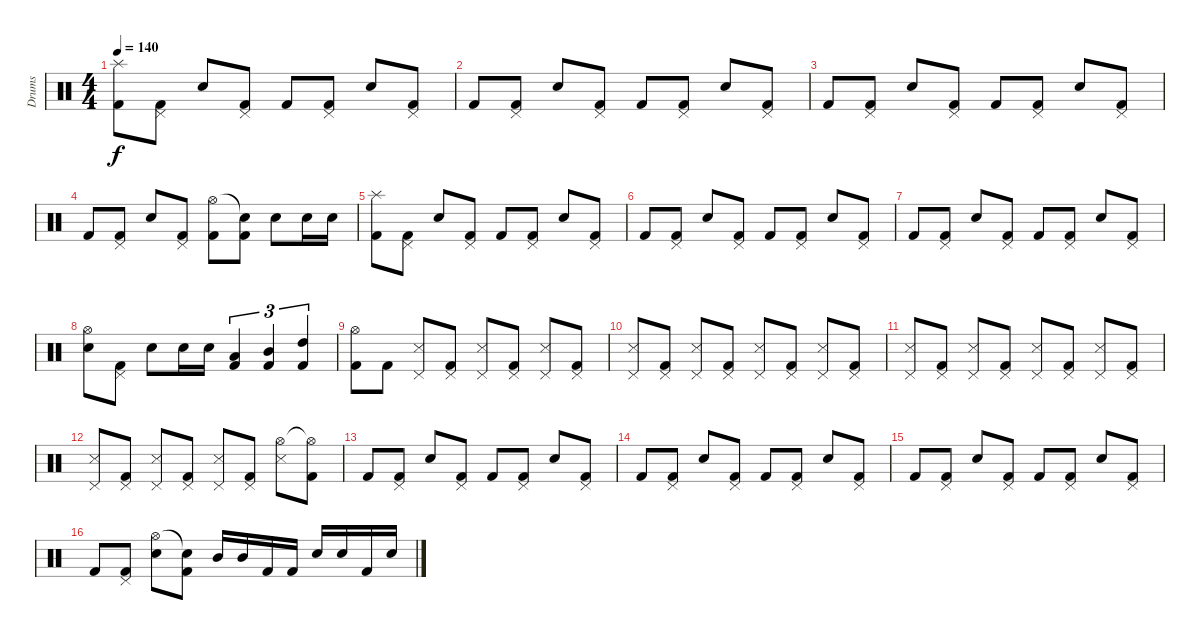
\track ("Drums" "Drums") {instrument percussion}
\staff {score}
\articulation defaults
\ts (4 4)
\tempo 140
\clef neutral
\ks c
("Splash (hit)" "Kick (hit) 2").8{dy f} ("Pedal Hi-Hat (hit)" "Kick (hit) 2").8 "Electric Snare (hit)".8 ("Pedal Hi-Hat (hit)" "Kick (hit) 2").8 "Kick (hit) 2".8 ("Pedal Hi-Hat (hit)" "Kick (hit) 2").8 "Electric Snare (hit)".8 ("Pedal Hi-Hat (hit)" "Kick (hit) 2").8 |
"Kick (hit) 2".8 ("Pedal Hi-Hat (hit)" "Kick (hit) 2").8 "Electric Snare (hit)".8 ("Pedal Hi-Hat (hit)" "Kick (hit) 2").8 "Kick (hit) 2".8 ("Pedal Hi-Hat (hit)" "Kick (hit) 2").8 "Electric Snare (hit)".8 ("Pedal Hi-Hat (hit)" "Kick (hit) 2").8 |
"Kick (hit) 2".8 ("Pedal Hi-Hat (hit)" "Kick (hit) 2").8 "Electric Snare (hit)".8 ("Pedal Hi-Hat (hit)" "Kick (hit) 2").8 "Kick (hit) 2".8 ("Pedal Hi-Hat (hit)" "Kick (hit) 2").8 "Electric Snare (hit)".8 ("Pedal Hi-Hat (hit)" "Kick (hit) 2").8 |
"Kick (hit) 2".8 ("Pedal Hi-Hat (hit)" "Kick (hit) 2").8 "Electric Snare (hit)".8 ("Pedal Hi-Hat (hit)" "Kick (hit) 2").8 ("Hi-Hat (open)" "Kick (hit) 2").8 ("Snare (hit)"{t} "Kick (hit) 2").8 "Electric Snare (hit)".8 "Electric Snare (hit)".16 "Electric Snare (hit)".16 |
("Splash (hit)" "Kick (hit) 2").8 ("Pedal Hi-Hat (hit)" "Kick (hit) 2").8 "Electric Snare (hit)".8 ("Pedal Hi-Hat (hit)" "Kick (hit) 2").8 "Kick (hit) 2".8 ("Pedal Hi-Hat (hit)" "Kick (hit) 2").8 "Electric Snare (hit)".8 ("Pedal Hi-Hat (hit)" "Kick (hit) 2").8 |
"Kick (hit) 2".8 ("Pedal Hi-Hat (hit)" "Kick (hit) 2").8 "Electric Snare (hit)".8 ("Pedal Hi-Hat (hit)" "Kick (hit) 2").8 "Kick (hit) 2".8 ("Pedal Hi-Hat (hit)" "Kick (hit) 2").8 "Electric Snare (hit)".8 ("Pedal Hi-Hat (hit)" "Kick (hit) 2").8 |
"Kick (hit) 2".8 ("Pedal Hi-Hat (hit)" "Kick (hit) 2").8 "Electric Snare (hit)".8 ("Pedal Hi-Hat (hit)" "Kick (hit) 2").8 "Kick (hit) 2".8 ("Pedal Hi-Hat (hit)" "Kick (hit) 2").8 "Electric Snare (hit)".8 ("Pedal Hi-Hat (hit)" "Kick (hit) 2").8 |
("Hi-Hat (open)" "Electric Snare (hit)").8 ("Pedal Hi-Hat (hit)" "Kick (hit) 2").8 "Electric Snare (hit)".8 "Electric Snare (hit)".16 "Electric Snare (hit)".16 ("Low Tom (hit)" "Kick (hit) 2").4{tu (3 2)} ("Mid Tom (hit)" "Kick (hit) 2").4{tu (3 2)} ("High Tom (hit)" "Kick (hit) 2").4{tu (3 2)} |
("Hi-Hat (open)" "Kick (hit) 2").8 "Kick (hit) 2".8 ("Pedal Hi-Hat (hit)" "Snare (side stick) 3").8 ("Pedal Hi-Hat (hit)" "Kick (hit) 2").8 ("Pedal Hi-Hat (hit)" "Snare (side stick) 3").8 ("Pedal Hi-Hat (hit)" "Kick (hit) 2").8 ("Pedal Hi-Hat (hit)" "Snare (side stick) 3").8 ("Pedal Hi-Hat (hit)" "Kick (hit) 2").8 |
("Pedal Hi-Hat (hit)" "Snare (side stick) 3").8 ("Pedal Hi-Hat (hit)" "Kick (hit) 2").8 ("Pedal Hi-Hat (hit)" "Snare (side stick) 3").8 ("Pedal Hi-Hat (hit)" "Kick (hit) 2").8 ("Pedal Hi-Hat (hit)" "Snare (side stick) 3").8 ("Pedal Hi-Hat (hit)" "Kick (hit) 2").8 ("Pedal Hi-Hat (hit)" "Snare (side stick) 3").8 ("Pedal Hi-Hat (hit)" "Kick (hit) 2").8 |
("Pedal Hi-Hat (hit)" "Snare (side stick) 3").8 ("Pedal Hi-Hat (hit)" "Kick (hit) 2").8 ("Pedal Hi-Hat (hit)" "Snare (side stick) 3").8 ("Pedal Hi-Hat (hit)" "Kick (hit) 2").8 ("Pedal Hi-Hat (hit)" "Snare (side stick) 3").8 ("Pedal Hi-Hat (hit)" "Kick (hit) 2").8 ("Pedal Hi-Hat (hit)" "Snare (side stick) 3").8 ("Pedal Hi-Hat (hit)" "Kick (hit) 2").8 |
("Pedal Hi-Hat (hit)" "Snare (side stick) 3").8 ("Pedal Hi-Hat (hit)" "Kick (hit) 2").8 ("Pedal Hi-Hat (hit)" "Snare (side stick) 3").8 ("Pedal Hi-Hat (hit)" "Kick (hit) 2").8 ("Pedal Hi-Hat (hit)" "Snare (side stick) 3").8 ("Pedal Hi-Hat (hit)" "Kick (hit) 2").8 ("Hi-Hat (open)" "Snare (side stick) 3").8 ("Hi-Hat (open)"{t} "Kick (hit) 2").8 |
"Kick (hit) 2".8 ("Pedal Hi-Hat (hit)" "Kick (hit) 2").8 "Electric Snare (hit)".8 ("Pedal Hi-Hat (hit)" "Kick (hit) 2").8 "Kick (hit) 2".8 ("Pedal Hi-Hat (hit)" "Kick (hit) 2").8 "Electric Snare (hit)".8 ("Pedal Hi-Hat (hit)" "Kick (hit) 2").8 |
"Kick (hit) 2".8 ("Pedal Hi-Hat (hit)" "Kick (hit) 2").8 "Electric Snare (hit)".8 ("Pedal Hi-Hat (hit)" "Kick (hit) 2").8 "Kick (hit) 2".8 ("Pedal Hi-Hat (hit)" "Kick (hit) 2").8 "Electric Snare (hit)".8 ("Pedal Hi-Hat (hit)" "Kick (hit) 2").8 |
"Kick (hit) 2".8 ("Pedal Hi-Hat (hit)" "Kick (hit) 2").8 "Electric Snare (hit)".8 ("Pedal Hi-Hat (hit)" "Kick (hit) 2").8 "Kick (hit) 2".8 ("Pedal Hi-Hat (hit)" "Kick (hit) 2").8 "Electric Snare (hit)".8 ("Pedal Hi-Hat (hit)" "Kick (hit) 2").8 |
"Kick (hit) 2".8 ("Pedal Hi-Hat (hit)" "Kick (hit) 2").8 ("Hi-Hat (open)" "Electric Snare (hit)").8 ("Snare (hit)"{t} "Kick (hit) 2").8 "Mid Tom (hit)".16 "Mid Tom (hit)".16 "Kick (hit) 2".16 "Kick (hit) 2".16 "Electric Snare (hit)".16 "Electric Snare (hit)".16 "Kick (hit) 2".16 "Electric Snare (hit)".16
